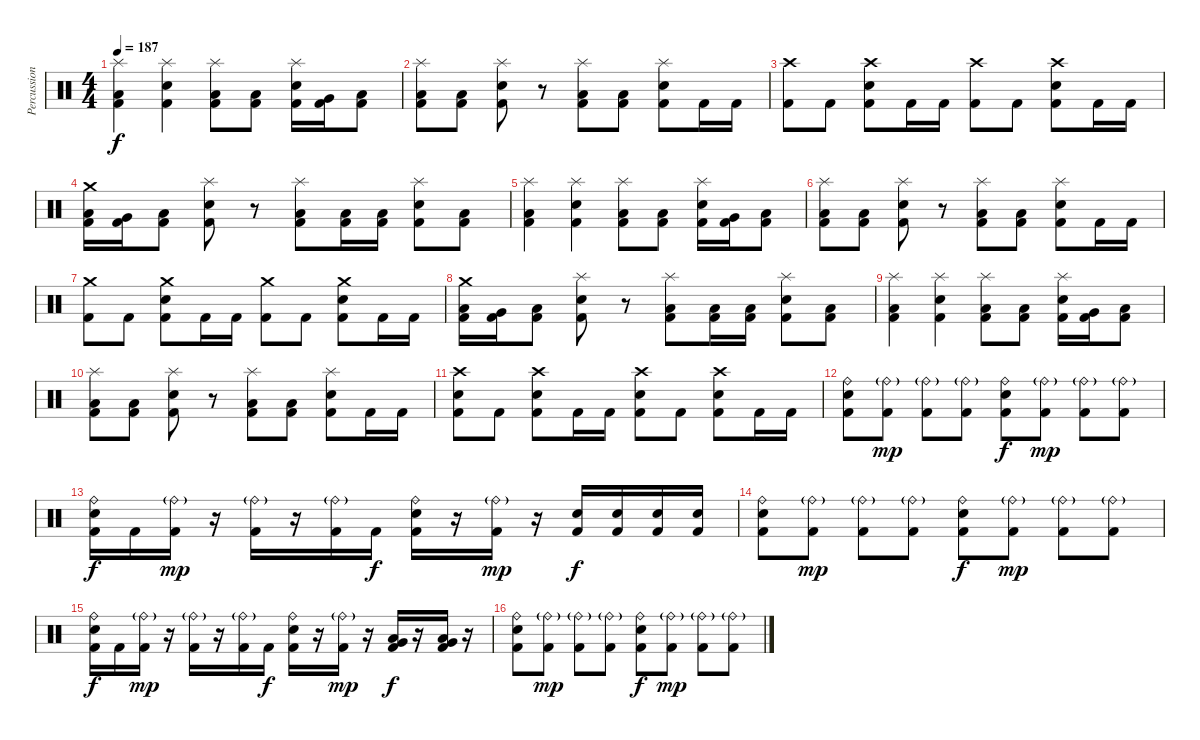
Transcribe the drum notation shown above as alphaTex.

\track ("Percussion" "Percussion") {instrument percussion}
\staff {score}
\articulation defaults
\ts (4 4)
\tempo 187
\clef neutral
\ks c
("Splash (hit)" "Low Floor Tom (hit)" "Kick (hit) 2").4{dy f} ("Splash (hit)" "Electric Snare (hit)" "Kick (hit) 2").4 ("Splash (hit)" "Low Floor Tom (hit)" "Kick (hit) 2").8 ("Low Floor Tom (hit)" "Kick (hit) 2").8 ("Splash (hit)" "Electric Snare (hit)" "Kick (hit) 2").16 ("Very Low Tom (hit)" "Kick (hit) 2").16 ("Low Floor Tom (hit)" "Kick (hit) 2").8 |
("Splash (hit)" "Low Tom (hit)" "Kick (hit) 2").8 ("Low Floor Tom (hit)" "Kick (hit) 2").8 ("Splash (hit)" "Electric Snare (hit)" "Kick (hit) 2").8 r.8 ("Splash (hit)" "Low Floor Tom (hit)" "Kick (hit) 2").8 ("Low Floor Tom (hit)" "Kick (hit) 2").8 ("Splash (hit)" "Electric Snare (hit)" "Kick (hit) 2").8 "Kick (hit) 2".16 "Kick (hit) 2".16 |
("Crash high (hit)" "Kick (hit) 2").8 "Kick (hit) 2".8 ("Crash high (hit)" "Electric Snare (hit)" "Kick (hit) 2").8 "Kick (hit) 2".16 "Kick (hit) 2".16 ("Crash high (hit)" "Kick (hit) 2").8 "Kick (hit) 2".8 ("Crash high (hit)" "Electric Snare (hit)" "Kick (hit) 2").8 "Kick (hit) 2".16 "Kick (hit) 2".16 |
("Crash medium (hit)" "Low Tom (hit)" "Kick (hit) 2").16 ("Very Low Tom (hit)" "Kick (hit) 2").16 ("Low Floor Tom (hit)" "Kick (hit) 2").8 ("Splash (hit)" "Electric Snare (hit)" "Kick (hit) 2").8 r.8 ("Splash (hit)" "Low Floor Tom (hit)" "Kick (hit) 2").8 ("Low Floor Tom (hit)" "Kick (hit) 2").16 ("Low Floor Tom (hit)" "Kick (hit) 2").16 ("Splash (hit)" "Electric Snare (hit)" "Kick (hit) 2").8 ("Low Floor Tom (hit)" "Kick (hit) 2").8 |
("Splash (hit)" "Low Floor Tom (hit)" "Kick (hit) 2").4 ("Splash (hit)" "Electric Snare (hit)" "Kick (hit) 2").4 ("Splash (hit)" "Low Floor Tom (hit)" "Kick (hit) 2").8 ("Low Floor Tom (hit)" "Kick (hit) 2").8 ("Splash (hit)" "Electric Snare (hit)" "Kick (hit) 2").16 ("Very Low Tom (hit)" "Kick (hit) 2").16 ("Low Floor Tom (hit)" "Kick (hit) 2").8 |
("Splash (hit)" "Low Tom (hit)" "Kick (hit) 2").8 ("Low Floor Tom (hit)" "Kick (hit) 2").8 ("Splash (hit)" "Electric Snare (hit)" "Kick (hit) 2").8 r.8 ("Splash (hit)" "Low Floor Tom (hit)" "Kick (hit) 2").8 ("Low Floor Tom (hit)" "Kick (hit) 2").8 ("Splash (hit)" "Electric Snare (hit)" "Kick (hit) 2").8 "Kick (hit) 2".16 "Kick (hit) 2".16 |
("Crash medium (hit)" "Kick (hit) 2").8 "Kick (hit) 2".8 ("Crash medium (hit)" "Electric Snare (hit)" "Kick (hit) 2").8 "Kick (hit) 2".16 "Kick (hit) 2".16 ("Crash medium (hit)" "Kick (hit) 2").8 "Kick (hit) 2".8 ("Crash medium (hit)" "Electric Snare (hit)" "Kick (hit) 2").8 "Kick (hit) 2".16 "Kick (hit) 2".16 |
("Crash medium (hit)" "Low Tom (hit)" "Kick (hit) 2").16 ("Very Low Tom (hit)" "Kick (hit) 2").16 ("Low Floor Tom (hit)" "Kick (hit) 2").8 ("Splash (hit)" "Electric Snare (hit)" "Kick (hit) 2").8 r.8 ("Splash (hit)" "Low Floor Tom (hit)" "Kick (hit) 2").8 ("Low Floor Tom (hit)" "Kick (hit) 2").16 ("Low Floor Tom (hit)" "Kick (hit) 2").16 ("Splash (hit)" "Electric Snare (hit)" "Kick (hit) 2").8 ("Low Floor Tom (hit)" "Kick (hit) 2").8 |
("Splash (hit)" "Low Floor Tom (hit)" "Kick (hit) 2").4 ("Splash (hit)" "Electric Snare (hit)" "Kick (hit) 2").4 ("Splash (hit)" "Low Floor Tom (hit)" "Kick (hit) 2").8 ("Low Floor Tom (hit)" "Kick (hit) 2").8 ("Splash (hit)" "Electric Snare (hit)" "Kick (hit) 2").16 ("Very Low Tom (hit)" "Kick (hit) 2").16 ("Low Floor Tom (hit)" "Kick (hit) 2").8 |
("Splash (hit)" "Low Tom (hit)" "Kick (hit) 2").8 ("Low Floor Tom (hit)" "Kick (hit) 2").8 ("Splash (hit)" "Electric Snare (hit)" "Kick (hit) 2").8 r.8 ("Splash (hit)" "Low Floor Tom (hit)" "Kick (hit) 2").8 ("Low Floor Tom (hit)" "Kick (hit) 2").8 ("Splash (hit)" "Electric Snare (hit)" "Kick (hit) 2").8 "Kick (hit) 2".16 "Kick (hit) 2".16 |
("Crash high (hit)" "Electric Snare (hit)" "Kick (hit) 2").8 "Kick (hit) 2".8 ("Crash high (hit)" "Electric Snare (hit)" "Kick (hit) 2").8 "Kick (hit) 2".16 "Kick (hit) 2".16 ("Crash high (hit)" "Electric Snare (hit)" "Kick (hit) 2").8 "Kick (hit) 2".8 ("Crash high (hit)" "Electric Snare (hit)" "Kick (hit) 2").8 "Kick (hit) 2".16 "Kick (hit) 2".16 |
("Ride (bell)" "Electric Snare (hit)" "Kick (hit) 2").8 ("Ride (bell)"{g} "Kick (hit) 2").8{dy mp} ("Ride (bell)"{g} "Kick (hit) 2").8 ("Ride (bell)"{g} "Kick (hit) 2").8 ("Ride (bell)" "Electric Snare (hit)" "Kick (hit) 2").8{dy f} ("Ride (bell)"{g} "Kick (hit) 2").8{dy mp} ("Ride (bell)"{g} "Kick (hit) 2").8 ("Ride (bell)"{g} "Kick (hit) 2").8 |
("Ride (bell)" "Electric Snare (hit)" "Kick (hit) 2").16{dy f} "Kick (hit) 2".16 ("Ride (bell)"{g} "Kick (hit) 2").16{dy mp} r.16 ("Ride (bell)"{g} "Kick (hit) 2").16 r.16 ("Ride (bell)"{g} "Kick (hit) 2").16 "Kick (hit) 2".16{dy f} ("Ride (bell)" "Electric Snare (hit)" "Kick (hit) 2").16 r.16 ("Ride (bell)"{g} "Kick (hit) 2").16{dy mp} r.16 ("Electric Snare (hit)" "Kick (hit) 2").16{dy f} ("Electric Snare (hit)" "Kick (hit) 2").16 ("Electric Snare (hit)" "Kick (hit) 2").16 ("Electric Snare (hit)" "Kick (hit) 2").16 |
("Ride (bell)" "Electric Snare (hit)" "Kick (hit) 2").8 ("Ride (bell)"{g} "Kick (hit) 2").8{dy mp} ("Ride (bell)"{g} "Kick (hit) 2").8 ("Ride (bell)"{g} "Kick (hit) 2").8 ("Ride (bell)" "Electric Snare (hit)" "Kick (hit) 2").8{dy f} ("Ride (bell)"{g} "Kick (hit) 2").8{dy mp} ("Ride (bell)"{g} "Kick (hit) 2").8 ("Ride (bell)"{g} "Kick (hit) 2").8 |
("Ride (bell)" "Electric Snare (hit)" "Kick (hit) 2").16{dy f} "Kick (hit) 2".16 ("Ride (bell)"{g} "Kick (hit) 2").16{dy mp} r.16 ("Ride (bell)"{g} "Kick (hit) 2").16 r.16 ("Ride (bell)"{g} "Kick (hit) 2").16 "Kick (hit) 2".16{dy f} ("Ride (bell)" "Electric Snare (hit)" "Kick (hit) 2").16 r.16 ("Ride (bell)"{g} "Kick (hit) 2").16{dy mp} r.16 ("Low Floor Tom (hit)" "Very Low Tom (hit)" "Kick (hit) 2").16{dy f} r.16 ("Low Floor Tom (hit)" "Very Low Tom (hit)" "Kick (hit) 2").16 r.16 |
("Ride (bell)" "Electric Snare (hit)" "Kick (hit) 2").8 ("Ride (bell)"{g} "Kick (hit) 2").8{dy mp} ("Ride (bell)"{g} "Kick (hit) 2").8 ("Ride (bell)"{g} "Kick (hit) 2").8 ("Ride (bell)" "Electric Snare (hit)" "Kick (hit) 2").8{dy f} ("Ride (bell)"{g} "Kick (hit) 2").8{dy mp} ("Ride (bell)"{g} "Kick (hit) 2").8 ("Ride (bell)"{g} "Kick (hit) 2").8
